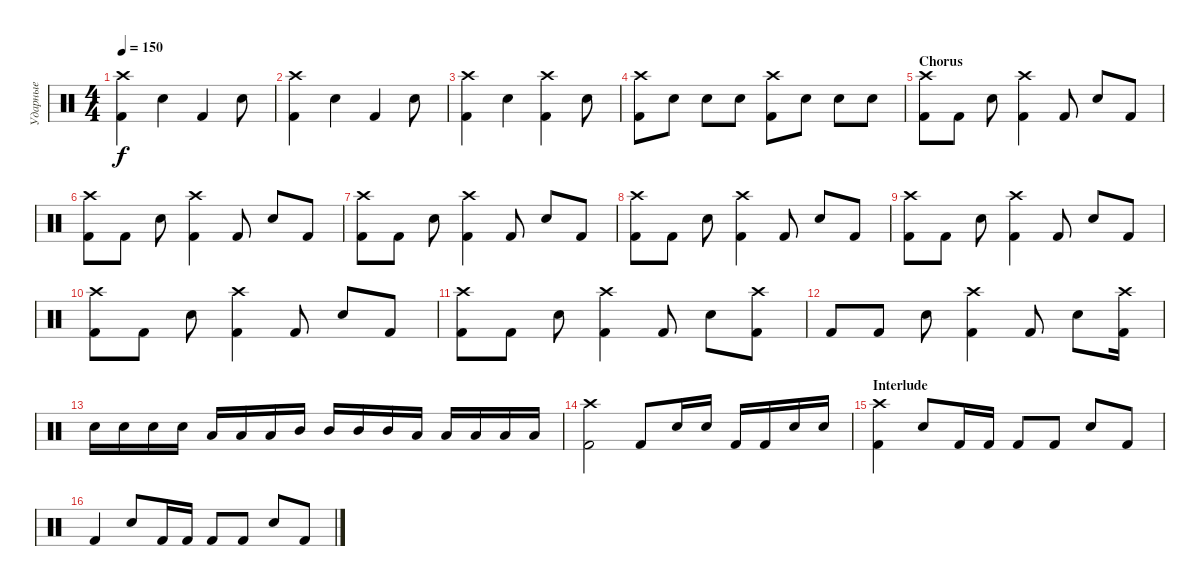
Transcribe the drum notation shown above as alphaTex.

\track ("Ударные" "Ударные") {instrument percussion}
\staff {score}
\articulation defaults
\ts (4 4)
\tempo 150
\clef neutral
\ks c
("Crash high (hit)" "Kick (hit) 2").4{dy f} "Electric Snare (hit)".4 "Kick (hit) 2".4 "Electric Snare (hit)".8 |
("Crash high (hit)" "Kick (hit) 2").4 "Electric Snare (hit)".4 "Kick (hit) 2".4 "Electric Snare (hit)".8 |
("Crash high (hit)" "Kick (hit) 2").4 "Electric Snare (hit)".4 ("Crash high (hit)" "Kick (hit) 2").4 "Electric Snare (hit)".8 |
("Crash high (hit)" "Kick (hit) 2").8 "Electric Snare (hit)".8 "Electric Snare (hit)".8 "Electric Snare (hit)".8 ("Crash high (hit)" "Kick (hit) 2").8 "Electric Snare (hit)".8 "Electric Snare (hit)".8 "Electric Snare (hit)".8 |
\section ("" "Chorus")
("Crash high (hit)" "Kick (hit) 2").8 "Kick (hit) 2".8 "Electric Snare (hit)".8 ("Crash high (hit)" "Kick (hit) 2").4 "Kick (hit) 2".8 "Electric Snare (hit)".8 "Kick (hit) 2".8 |
("Crash high (hit)" "Kick (hit) 2").8 "Kick (hit) 2".8 "Electric Snare (hit)".8 ("Crash high (hit)" "Kick (hit) 2").4 "Kick (hit) 2".8 "Electric Snare (hit)".8 "Kick (hit) 2".8 |
("Crash high (hit)" "Kick (hit) 2").8 "Kick (hit) 2".8 "Electric Snare (hit)".8 ("Crash high (hit)" "Kick (hit) 2").4 "Kick (hit) 2".8 "Electric Snare (hit)".8 "Kick (hit) 2".8 |
("Crash high (hit)" "Kick (hit) 2").8 "Kick (hit) 2".8 "Electric Snare (hit)".8 ("Crash high (hit)" "Kick (hit) 2").4 "Kick (hit) 2".8 "Electric Snare (hit)".8 "Kick (hit) 2".8 |
("Crash high (hit)" "Kick (hit) 2").8 "Kick (hit) 2".8 "Electric Snare (hit)".8 ("Crash high (hit)" "Kick (hit) 2").4 "Kick (hit) 2".8 "Electric Snare (hit)".8 "Kick (hit) 2".8 |
("Crash high (hit)" "Kick (hit) 2").8 "Kick (hit) 2".8 "Electric Snare (hit)".8 ("Crash high (hit)" "Kick (hit) 2").4 "Kick (hit) 2".8 "Electric Snare (hit)".8 "Kick (hit) 2".8 |
("Crash high (hit)" "Kick (hit) 2").8 "Kick (hit) 2".8 "Electric Snare (hit)".8 ("Crash high (hit)" "Kick (hit) 2").4 "Kick (hit) 2".8 "Electric Snare (hit)".8 ("Crash high (hit)" "Kick (hit) 2").8 |
"Kick (hit) 2".8 "Kick (hit) 2".8 "Electric Snare (hit)".8 ("Crash high (hit)" "Kick (hit) 2").4 "Kick (hit) 2".8 "Electric Snare (hit)".8 ("Crash high (hit)" "Kick (hit) 2").16 |
"Electric Snare (hit)".16 "Electric Snare (hit)".16 "Electric Snare (hit)".16 "Electric Snare (hit)".16 "Low Tom (hit)".16 "Low Tom (hit)".16 "Low Tom (hit)".16 "Mid Tom (hit)".16 "Mid Tom (hit)".16 "Mid Tom (hit)".16 "Mid Tom (hit)".16 "Low Tom (hit)".16 "Low Tom (hit)".16 "Low Tom (hit)".16 "Low Tom (hit)".16 "Low Tom (hit)".16 |
("Crash high (hit)" "Kick (hit) 2").2 "Kick (hit) 2".8 "Electric Snare (hit)".16 "Electric Snare (hit)".16 "Kick (hit) 2".16 "Kick (hit) 2".16 "Electric Snare (hit)".16 "Electric Snare (hit)".16 |
\section ("" "Interlude")
("Crash high (hit)" "Kick (hit) 2").4 "Electric Snare (hit)".8 "Kick (hit) 2".16 "Kick (hit) 2".16 "Kick (hit) 2".8 "Kick (hit) 2".8 "Electric Snare (hit)".8 "Kick (hit) 2".8 |
"Kick (hit) 2".4 "Electric Snare (hit)".8 "Kick (hit) 2".16 "Kick (hit) 2".16 "Kick (hit) 2".8 "Kick (hit) 2".8 "Electric Snare (hit)".8 "Kick (hit) 2".8
